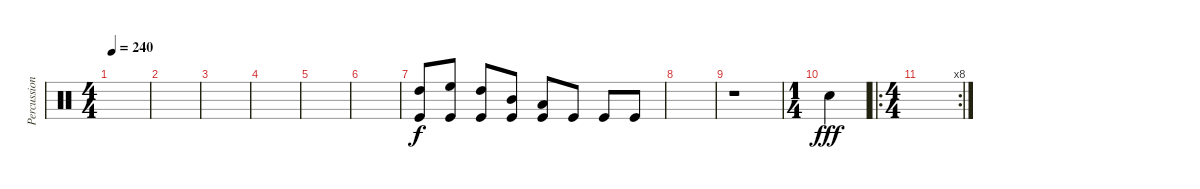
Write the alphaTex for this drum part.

\track ("Percussion" "Percussion") {instrument percussion}
\staff {score}
\articulation defaults
\ts (4 4)
\tempo 240
\clef neutral
\ks c
|
|
|
|
|
|
("High Tom (hit)" "Kick (hit)").8 ("High Floor Tom (hit)" "Kick (hit)").8 ("High Tom (hit)" "Kick (hit)").8 ("Mid Tom (hit)" "Kick (hit)").8 ("Low Tom (hit)" "Kick (hit)").8 "Kick (hit)".8 "Kick (hit)".8 "Kick (hit)".8 |
|
r.1 |
\ts (1 4)
"Snare (hit) 2".4{dy fff} |
\ro
\rc 8
\ts (4 4)
